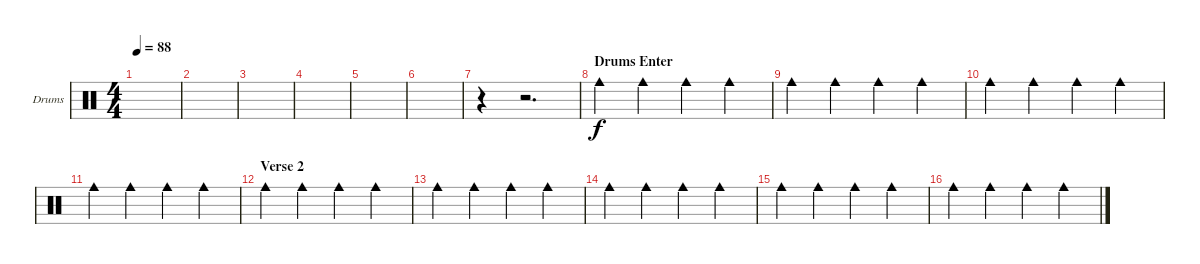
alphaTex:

\bracketExtendMode groupsimilarinstruments
\firstSystemTrackNameOrientation horizontal
\otherSystemsTrackNameOrientation horizontal
\track ("Bell" "Drums") {instrument percussion}
\staff {score}
\articulation defaults
\ts (4 4)
\tempo 88
\clef neutral
\ks c
|
|
|
|
|
|
r.4 r.2{d} |
\section ("" "Drums Enter")
"Cowbell medium (hit)".4 "Cowbell medium (hit)".4 "Cowbell medium (hit)".4 "Cowbell medium (hit)".4 |
"Cowbell medium (hit)".4 "Cowbell medium (hit)".4 "Cowbell medium (hit)".4 "Cowbell medium (hit)".4 |
"Cowbell medium (hit)".4 "Cowbell medium (hit)".4 "Cowbell medium (hit)".4 "Cowbell medium (hit)".4 |
"Cowbell medium (hit)".4 "Cowbell medium (hit)".4 "Cowbell medium (hit)".4 "Cowbell medium (hit)".4 |
\section ("" "Verse 2")
"Cowbell medium (hit)".4 "Cowbell medium (hit)".4 "Cowbell medium (hit)".4 "Cowbell medium (hit)".4 |
"Cowbell medium (hit)".4 "Cowbell medium (hit)".4 "Cowbell medium (hit)".4 "Cowbell medium (hit)".4 |
"Cowbell medium (hit)".4 "Cowbell medium (hit)".4 "Cowbell medium (hit)".4 "Cowbell medium (hit)".4 |
"Cowbell medium (hit)".4 "Cowbell medium (hit)".4 "Cowbell medium (hit)".4 "Cowbell medium (hit)".4 |
"Cowbell medium (hit)".4 "Cowbell medium (hit)".4 "Cowbell medium (hit)".4 "Cowbell medium (hit)".4
